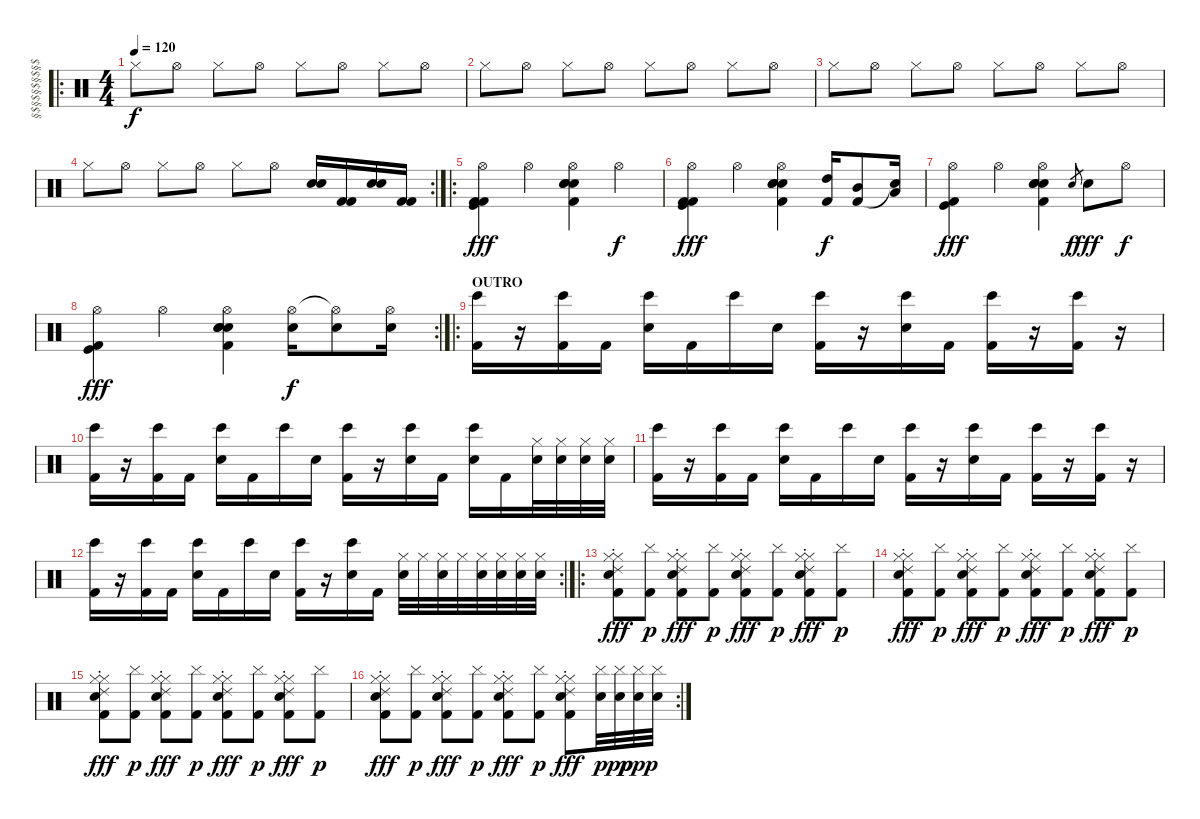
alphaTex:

\track ("§$§$§$§$§$§$§$§" "§$§$§$§$§$") {instrument percussion}
\staff {score}
\articulation defaults
\ro
\ts (4 4)
\tempo 120
\clef neutral
\ks c "Hi-Hat (closed)".8{dy f} "Hi-Hat (open)".8 "Hi-Hat (closed)".8 "Hi-Hat (open)".8 "Hi-Hat (closed)".8 "Hi-Hat (open)".8 "Hi-Hat (closed)".8 "Hi-Hat (open)".8
|
"Hi-Hat (closed)".8 "Hi-Hat (open)".8 "Hi-Hat (closed)".8 "Hi-Hat (open)".8 "Hi-Hat (closed)".8 "Hi-Hat (open)".8 "Hi-Hat (closed)".8 "Hi-Hat (open)".8 |
"Hi-Hat (closed)".8 "Hi-Hat (open)".8 "Hi-Hat (closed)".8 "Hi-Hat (open)".8 "Hi-Hat (closed)".8 "Hi-Hat (open)".8 "Hi-Hat (closed)".8 "Hi-Hat (open)".8 |
\rc 2 "Hi-Hat (closed)".8 "Hi-Hat (open)".8 "Hi-Hat (closed)".8 "Hi-Hat (open)".8 "Hi-Hat (closed)".8 "Hi-Hat (open)".8
("Electric Snare (hit)" "Electric Snare (hit)").16 ("Kick (hit) 2" "Kick (hit) 2").16 ("Electric Snare (hit)" "Electric Snare (hit)").16 ("Kick (hit) 2" "Kick (hit) 2").16 |
\ro
("Hi-Hat (open)" "Kick (hit) 2" "Kick (hit)" "Kick (hit) 2").4{dy fff} "Hi-Hat (open)".4 ("Hi-Hat (open)" "Kick (hit) 2" "Electric Snare (hit)" "Electric Snare (hit)" "Electric Snare (hit)").4 "Hi-Hat (open)".4{dy f} |
("Hi-Hat (open)" "Kick (hit) 2" "Kick (hit)" "Kick (hit) 2").4{dy fff} "Hi-Hat (open)".4 ("Hi-Hat (open)" "Kick (hit) 2" "Electric Snare (hit)" "Electric Snare (hit)" "Electric Snare (hit)").4 ("High Tom (hit)" "Kick (hit) 2").16{dy f} ("Mid Tom (hit)" "Kick (hit) 2").8 ("Low Tom (hit)" "Electric Snare (hit)"{t}).16 |
("Hi-Hat (open)" "Kick (hit)" "Kick (hit) 2").4{dy fff} "Hi-Hat (open)".4 ("Hi-Hat (open)" "Kick (hit) 2" "Electric Snare (hit)" "Electric Snare (hit)" "Electric Snare (hit)").4 "Electric Snare (hit)".8{gr dy f} "Electric Snare (hit)".8{dy fff} "Hi-Hat (open)".8{dy f} |
\rc 2
("Hi-Hat (open)" "Kick (hit)" "Kick (hit) 2").4{dy fff} "Hi-Hat (open)".4 ("Hi-Hat (open)" "Kick (hit) 2" "Electric Snare (hit)" "Electric Snare (hit)" "Electric Snare (hit)").4 ("Hi-Hat (open)" "Electric Snare (hit)").16{dy f} ("Hi-Hat (open)"{t} "Electric Snare (hit)").8 ("Hi-Hat (open)" "Electric Snare (hit)").16 |
\ro
\section ("" "OUTRO")
("Bongo High (hit)" "Kick (hit) 2").16 r.16 ("Bongo High (hit)" "Kick (hit) 2").16 "Kick (hit) 2".16 ("Bongo High (hit)" "Electric Snare (hit)").16 "Kick (hit) 2".16 "Bongo High (hit)".16 "Electric Snare (hit)".16 ("Bongo High (hit)" "Kick (hit) 2").16 r.16 ("Bongo High (hit)" "Electric Snare (hit)").16 "Kick (hit) 2".16 ("Bongo High (hit)" "Kick (hit) 2").16 r.16 ("Bongo High (hit)" "Kick (hit) 2").16 r.16 |
("Bongo High (hit)" "Kick (hit) 2").16 r.16 ("Bongo High (hit)" "Kick (hit) 2").16 "Kick (hit) 2".16 ("Bongo High (hit)" "Electric Snare (hit)").16 "Kick (hit) 2".16 "Bongo High (hit)".16 "Electric Snare (hit)".16 ("Bongo High (hit)" "Kick (hit) 2").16 r.16 ("Bongo High (hit)" "Electric Snare (hit)").16 "Kick (hit) 2".16 ("Bongo High (hit)" "Electric Snare (hit)").16 "Kick (hit) 2".16 ("Hi-Hat (closed)" "Electric Snare (hit)").32 ("Hi-Hat (closed)" "Electric Snare (hit)").32 ("Hi-Hat (closed)" "Electric Snare (hit)").32 ("Hi-Hat (closed)" "Electric Snare (hit)").32 |
("Bongo High (hit)" "Kick (hit) 2").16 r.16 ("Bongo High (hit)" "Kick (hit) 2").16 "Kick (hit) 2".16 ("Bongo High (hit)" "Electric Snare (hit)").16 "Kick (hit) 2".16 "Bongo High (hit)".16 "Electric Snare (hit)".16 ("Bongo High (hit)" "Kick (hit) 2").16 r.16 ("Bongo High (hit)" "Electric Snare (hit)").16 "Kick (hit) 2".16 ("Bongo High (hit)" "Kick (hit) 2").16 r.16 ("Bongo High (hit)" "Kick (hit) 2").16 r.16 |
\rc 2
("Bongo High (hit)" "Kick (hit) 2").16 r.16 ("Bongo High (hit)" "Kick (hit) 2").16 "Kick (hit) 2".16 ("Bongo High (hit)" "Electric Snare (hit)").16 "Kick (hit) 2".16 "Bongo High (hit)".16 "Electric Snare (hit)".16 ("Bongo High (hit)" "Kick (hit) 2").16 r.16 ("Bongo High (hit)" "Electric Snare (hit)").16 "Kick (hit) 2".16 ("Hi-Hat (closed)" "Electric Snare (hit)").32 "Hi-Hat (closed)".32 ("Hi-Hat (closed)" "Electric Snare (hit)").32 "Hi-Hat (closed)".32 ("Hi-Hat (closed)" "Electric Snare (hit)").32 ("Hi-Hat (closed)" "Electric Snare (hit)").32 ("Hi-Hat (closed)" "Electric Snare (hit)").32 ("Hi-Hat (closed)" "Electric Snare (hit)").32 |
\ro
("Ride (choke) 2" "Hi-Hat (closed)" "Kick (hit) 2" "Hi-Hat (closed)" "Electric Snare (hit)").8{dy fff} ("Cymbal (hit)" "Kick (hit) 2").8{dy p} ("Ride (choke) 2" "Hi-Hat (closed)" "Kick (hit) 2" "Hi-Hat (closed)" "Electric Snare (hit)").8{dy fff} ("Cymbal (hit)" "Kick (hit) 2").8{dy p} ("Ride (choke) 2" "Hi-Hat (closed)" "Kick (hit) 2" "Hi-Hat (closed)" "Electric Snare (hit)").8{dy fff} ("Cymbal (hit)" "Kick (hit) 2").8{dy p} ("Ride (choke) 2" "Hi-Hat (closed)" "Kick (hit) 2" "Hi-Hat (closed)" "Electric Snare (hit)").8{dy fff} ("Cymbal (hit)" "Kick (hit) 2").8{dy p} |
("Ride (choke) 2" "Hi-Hat (closed)" "Kick (hit) 2" "Hi-Hat (closed)" "Electric Snare (hit)").8{dy fff} ("Cymbal (hit)" "Kick (hit) 2").8{dy p} ("Ride (choke) 2" "Hi-Hat (closed)" "Kick (hit) 2" "Hi-Hat (closed)" "Electric Snare (hit)").8{dy fff} ("Cymbal (hit)" "Kick (hit) 2").8{dy p} ("Ride (choke) 2" "Hi-Hat (closed)" "Kick (hit) 2" "Hi-Hat (closed)" "Electric Snare (hit)").8{dy fff} ("Cymbal (hit)" "Kick (hit) 2").8{dy p} ("Ride (choke) 2" "Hi-Hat (closed)" "Kick (hit) 2" "Hi-Hat (closed)" "Electric Snare (hit)").8{dy fff} ("Cymbal (hit)" "Kick (hit) 2").8{dy p} |
("Ride (choke) 2" "Hi-Hat (closed)" "Kick (hit) 2" "Hi-Hat (closed)" "Electric Snare (hit)").8{dy fff} ("Cymbal (hit)" "Kick (hit) 2").8{dy p} ("Ride (choke) 2" "Hi-Hat (closed)" "Kick (hit) 2" "Hi-Hat (closed)" "Electric Snare (hit)").8{dy fff} ("Cymbal (hit)" "Kick (hit) 2").8{dy p} ("Ride (choke) 2" "Hi-Hat (closed)" "Kick (hit) 2" "Hi-Hat (closed)" "Electric Snare (hit)").8{dy fff} ("Cymbal (hit)" "Kick (hit) 2").8{dy p} ("Ride (choke) 2" "Hi-Hat (closed)" "Kick (hit) 2" "Hi-Hat (closed)" "Electric Snare (hit)").8{dy fff} ("Cymbal (hit)" "Kick (hit) 2").8{dy p} |
\rc 2
("Ride (choke) 2" "Hi-Hat (closed)" "Kick (hit) 2" "Hi-Hat (closed)" "Electric Snare (hit)").8{dy fff} ("Cymbal (hit)" "Kick (hit) 2").8{dy p} ("Ride (choke) 2" "Hi-Hat (closed)" "Kick (hit) 2" "Hi-Hat (closed)" "Electric Snare (hit)").8{dy fff} ("Cymbal (hit)" "Kick (hit) 2").8{dy p} ("Ride (choke) 2" "Hi-Hat (closed)" "Kick (hit) 2" "Hi-Hat (closed)" "Electric Snare (hit)").8{dy fff} ("Cymbal (hit)" "Kick (hit) 2").8{dy p} ("Ride (choke) 2" "Hi-Hat (closed)" "Kick (hit) 2" "Hi-Hat (closed)" "Electric Snare (hit)").8{dy fff} ("Cymbal (hit)" "Electric Snare (hit)").32{dy p} ("Cymbal (hit)" "Electric Snare (hit)").32{dy pp} ("Cymbal (hit)" "Electric Snare (hit)").32{dy ppp} ("Cymbal (hit)" "Electric Snare (hit)").32
